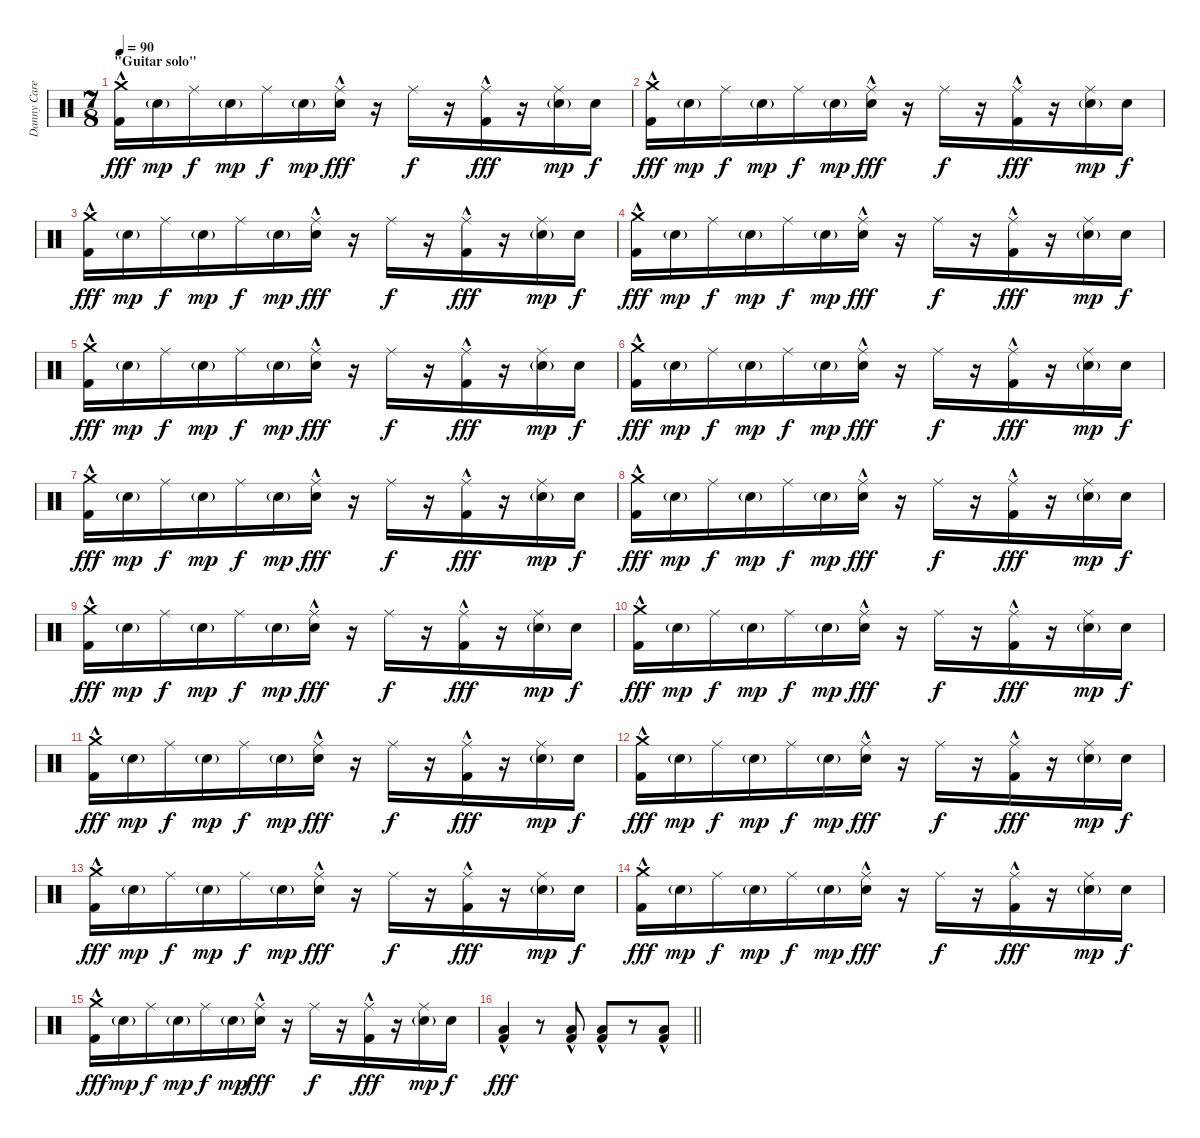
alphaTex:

\track ("Danny Carey" "Danny Care") {instrument percussion}
\staff {score}
\articulation defaults
\ts (7 8)
\section ("" "\"Guitar solo\"")
\tempo 90
\clef neutral
\ks c
("Crash medium (hit)" "Kick (hit) 2"{hac}).16{dy fff} "Electric Snare (hit)"{g}.16{dy mp} "Ride (middle)".16{dy f} "Electric Snare (hit)"{g}.16{dy mp} "Ride (middle)".16{dy f} "Electric Snare (hit)"{g}.16{dy mp} ("Ride (middle)" "Electric Snare (hit)"{hac}).16{dy fff} r.16 "Ride (middle)".16{dy f} r.16 ("Ride (middle)" "Kick (hit) 2"{hac}).16{dy fff} r.16 ("Ride (middle)" "Electric Snare (hit)"{g}).16{dy mp} "Electric Snare (hit)".16{dy f} |
("Crash medium (hit)" "Kick (hit) 2"{hac}).16{dy fff} "Electric Snare (hit)"{g}.16{dy mp} "Ride (middle)".16{dy f} "Electric Snare (hit)"{g}.16{dy mp} "Ride (middle)".16{dy f} "Electric Snare (hit)"{g}.16{dy mp} ("Ride (middle)" "Electric Snare (hit)"{hac}).16{dy fff} r.16 "Ride (middle)".16{dy f} r.16 ("Ride (middle)" "Kick (hit) 2"{hac}).16{dy fff} r.16 ("Ride (middle)" "Electric Snare (hit)"{g}).16{dy mp} "Electric Snare (hit)".16{dy f} |
("Crash medium (hit)" "Kick (hit) 2"{hac}).16{dy fff} "Electric Snare (hit)"{g}.16{dy mp} "Ride (middle)".16{dy f} "Electric Snare (hit)"{g}.16{dy mp} "Ride (middle)".16{dy f} "Electric Snare (hit)"{g}.16{dy mp} ("Ride (middle)" "Electric Snare (hit)"{hac}).16{dy fff} r.16 "Ride (middle)".16{dy f} r.16 ("Ride (middle)" "Kick (hit) 2"{hac}).16{dy fff} r.16 ("Ride (middle)" "Electric Snare (hit)"{g}).16{dy mp} "Electric Snare (hit)".16{dy f} |
("Crash medium (hit)" "Kick (hit) 2"{hac}).16{dy fff} "Electric Snare (hit)"{g}.16{dy mp} "Ride (middle)".16{dy f} "Electric Snare (hit)"{g}.16{dy mp} "Ride (middle)".16{dy f} "Electric Snare (hit)"{g}.16{dy mp} ("Ride (middle)" "Electric Snare (hit)"{hac}).16{dy fff} r.16 "Ride (middle)".16{dy f} r.16 ("Ride (middle)" "Kick (hit) 2"{hac}).16{dy fff} r.16 ("Ride (middle)" "Electric Snare (hit)"{g}).16{dy mp} "Electric Snare (hit)".16{dy f} |
("Crash medium (hit)" "Kick (hit) 2"{hac}).16{dy fff} "Electric Snare (hit)"{g}.16{dy mp} "Ride (middle)".16{dy f} "Electric Snare (hit)"{g}.16{dy mp} "Ride (middle)".16{dy f} "Electric Snare (hit)"{g}.16{dy mp} ("Ride (middle)" "Electric Snare (hit)"{hac}).16{dy fff} r.16 "Ride (middle)".16{dy f} r.16 ("Ride (middle)" "Kick (hit) 2"{hac}).16{dy fff} r.16 ("Ride (middle)" "Electric Snare (hit)"{g}).16{dy mp} "Electric Snare (hit)".16{dy f} |
("Crash medium (hit)" "Kick (hit) 2"{hac}).16{dy fff} "Electric Snare (hit)"{g}.16{dy mp} "Ride (middle)".16{dy f} "Electric Snare (hit)"{g}.16{dy mp} "Ride (middle)".16{dy f} "Electric Snare (hit)"{g}.16{dy mp} ("Ride (middle)" "Electric Snare (hit)"{hac}).16{dy fff} r.16 "Ride (middle)".16{dy f} r.16 ("Ride (middle)" "Kick (hit) 2"{hac}).16{dy fff} r.16 ("Ride (middle)" "Electric Snare (hit)"{g}).16{dy mp} "Electric Snare (hit)".16{dy f} |
("Crash medium (hit)" "Kick (hit) 2"{hac}).16{dy fff} "Electric Snare (hit)"{g}.16{dy mp} "Ride (middle)".16{dy f} "Electric Snare (hit)"{g}.16{dy mp} "Ride (middle)".16{dy f} "Electric Snare (hit)"{g}.16{dy mp} ("Ride (middle)" "Electric Snare (hit)"{hac}).16{dy fff} r.16 "Ride (middle)".16{dy f} r.16 ("Ride (middle)" "Kick (hit) 2"{hac}).16{dy fff} r.16 ("Ride (middle)" "Electric Snare (hit)"{g}).16{dy mp} "Electric Snare (hit)".16{dy f} |
("Crash medium (hit)" "Kick (hit) 2"{hac}).16{dy fff} "Electric Snare (hit)"{g}.16{dy mp} "Ride (middle)".16{dy f} "Electric Snare (hit)"{g}.16{dy mp} "Ride (middle)".16{dy f} "Electric Snare (hit)"{g}.16{dy mp} ("Ride (middle)" "Electric Snare (hit)"{hac}).16{dy fff} r.16 "Ride (middle)".16{dy f} r.16 ("Ride (middle)" "Kick (hit) 2"{hac}).16{dy fff} r.16 ("Ride (middle)" "Electric Snare (hit)"{g}).16{dy mp} "Electric Snare (hit)".16{dy f} |
("Crash medium (hit)" "Kick (hit) 2"{hac}).16{dy fff} "Electric Snare (hit)"{g}.16{dy mp} "Ride (middle)".16{dy f} "Electric Snare (hit)"{g}.16{dy mp} "Ride (middle)".16{dy f} "Electric Snare (hit)"{g}.16{dy mp} ("Ride (middle)" "Electric Snare (hit)"{hac}).16{dy fff} r.16 "Ride (middle)".16{dy f} r.16 ("Ride (middle)" "Kick (hit) 2"{hac}).16{dy fff} r.16 ("Ride (middle)" "Electric Snare (hit)"{g}).16{dy mp} "Electric Snare (hit)".16{dy f} |
("Crash medium (hit)" "Kick (hit) 2"{hac}).16{dy fff} "Electric Snare (hit)"{g}.16{dy mp} "Ride (middle)".16{dy f} "Electric Snare (hit)"{g}.16{dy mp} "Ride (middle)".16{dy f} "Electric Snare (hit)"{g}.16{dy mp} ("Ride (middle)" "Electric Snare (hit)"{hac}).16{dy fff} r.16 "Ride (middle)".16{dy f} r.16 ("Ride (middle)" "Kick (hit) 2"{hac}).16{dy fff} r.16 ("Ride (middle)" "Electric Snare (hit)"{g}).16{dy mp} "Electric Snare (hit)".16{dy f} |
("Crash medium (hit)" "Kick (hit) 2"{hac}).16{dy fff} "Electric Snare (hit)"{g}.16{dy mp} "Ride (middle)".16{dy f} "Electric Snare (hit)"{g}.16{dy mp} "Ride (middle)".16{dy f} "Electric Snare (hit)"{g}.16{dy mp} ("Ride (middle)" "Electric Snare (hit)"{hac}).16{dy fff} r.16 "Ride (middle)".16{dy f} r.16 ("Ride (middle)" "Kick (hit) 2"{hac}).16{dy fff} r.16 ("Ride (middle)" "Electric Snare (hit)"{g}).16{dy mp} "Electric Snare (hit)".16{dy f} |
("Crash medium (hit)" "Kick (hit) 2"{hac}).16{dy fff} "Electric Snare (hit)"{g}.16{dy mp} "Ride (middle)".16{dy f} "Electric Snare (hit)"{g}.16{dy mp} "Ride (middle)".16{dy f} "Electric Snare (hit)"{g}.16{dy mp} ("Ride (middle)" "Electric Snare (hit)"{hac}).16{dy fff} r.16 "Ride (middle)".16{dy f} r.16 ("Ride (middle)" "Kick (hit) 2"{hac}).16{dy fff} r.16 ("Ride (middle)" "Electric Snare (hit)"{g}).16{dy mp} "Electric Snare (hit)".16{dy f} |
("Crash medium (hit)" "Kick (hit) 2"{hac}).16{dy fff} "Electric Snare (hit)"{g}.16{dy mp} "Ride (middle)".16{dy f} "Electric Snare (hit)"{g}.16{dy mp} "Ride (middle)".16{dy f} "Electric Snare (hit)"{g}.16{dy mp} ("Ride (middle)" "Electric Snare (hit)"{hac}).16{dy fff} r.16 "Ride (middle)".16{dy f} r.16 ("Ride (middle)" "Kick (hit) 2"{hac}).16{dy fff} r.16 ("Ride (middle)" "Electric Snare (hit)"{g}).16{dy mp} "Electric Snare (hit)".16{dy f} |
("Crash medium (hit)" "Kick (hit) 2"{hac}).16{dy fff} "Electric Snare (hit)"{g}.16{dy mp} "Ride (middle)".16{dy f} "Electric Snare (hit)"{g}.16{dy mp} "Ride (middle)".16{dy f} "Electric Snare (hit)"{g}.16{dy mp} ("Ride (middle)" "Electric Snare (hit)"{hac}).16{dy fff} r.16 "Ride (middle)".16{dy f} r.16 ("Ride (middle)" "Kick (hit) 2"{hac}).16{dy fff} r.16 ("Ride (middle)" "Electric Snare (hit)"{g}).16{dy mp} "Electric Snare (hit)".16{dy f} |
("Crash medium (hit)" "Kick (hit) 2"{hac}).16{dy fff} "Electric Snare (hit)"{g}.16{dy mp} "Ride (middle)".16{dy f} "Electric Snare (hit)"{g}.16{dy mp} "Ride (middle)".16{dy f} "Electric Snare (hit)"{g}.16{dy mp} ("Ride (middle)" "Electric Snare (hit)"{hac}).16{dy fff} r.16 "Ride (middle)".16{dy f} r.16 ("Ride (middle)" "Kick (hit) 2"{hac}).16{dy fff} r.16 ("Ride (middle)" "Electric Snare (hit)"{g}).16{dy mp} "Electric Snare (hit)".16{dy f} |
\barLineRight lightlight
("Low Floor Tom (hit)"{hac} "Kick (hit) 2"{hac}).4{dy fff} r.8 ("Low Floor Tom (hit)"{hac} "Kick (hit) 2"{hac}).8 ("Low Floor Tom (hit)"{hac} "Kick (hit) 2"{hac}).8 r.8 ("Low Floor Tom (hit)"{hac} "Kick (hit) 2"{hac}).8
